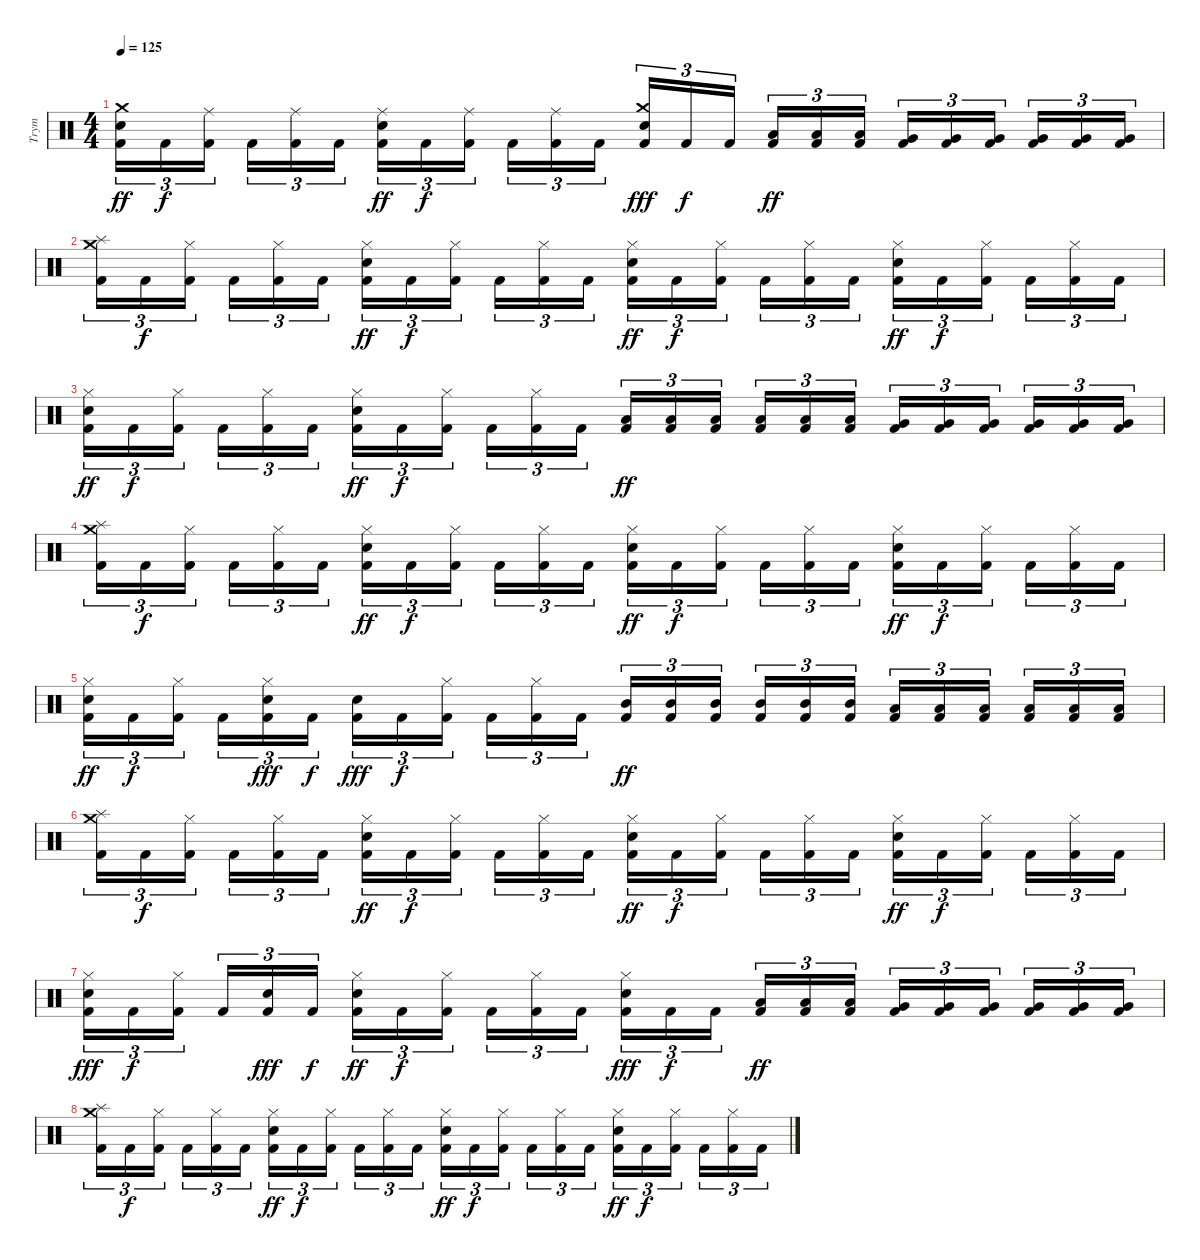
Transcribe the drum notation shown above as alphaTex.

\track ("Trym" "Trym") {instrument percussion}
\staff {score}
\articulation defaults
\ts (4 4)
\tempo 125
\clef neutral
\ks c
("Snare (hit) 2" "Crash medium (hit)" "Kick (hit) 2").16{tu (3 2) dy ff} "Kick (hit) 2".16{tu (3 2) dy f} ("Ride (middle)" "Kick (hit) 2").16{tu (3 2) beam splitsecondary} "Kick (hit) 2".16{tu (3 2)} ("Ride (middle)" "Kick (hit) 2").16{tu (3 2)} "Kick (hit) 2".16{tu (3 2)} ("Snare (hit) 2" "Ride (middle)" "Kick (hit) 2").16{tu (3 2) dy ff} "Kick (hit) 2".16{tu (3 2) dy f} ("Ride (middle)" "Kick (hit) 2").16{tu (3 2) beam splitsecondary} "Kick (hit) 2".16{tu (3 2)} ("Ride (middle)" "Kick (hit) 2").16{tu (3 2)} "Kick (hit) 2".16{tu (3 2)} ("Snare (hit) 2" "Crash medium (hit)" "Kick (hit) 2").16{tu (3 2) dy fff} "Kick (hit) 2".16{tu (3 2) dy f} "Kick (hit) 2".16{tu (3 2) beam splitsecondary} ("Low Tom (hit)" "Kick (hit) 2").16{tu (3 2) dy ff} ("Low Tom (hit)" "Kick (hit) 2").16{tu (3 2)} ("Low Tom (hit)" "Kick (hit) 2").16{tu (3 2)} ("Very Low Tom (hit)" "Kick (hit) 2").16{tu (3 2)} ("Very Low Tom (hit)" "Kick (hit) 2").16{tu (3 2)} ("Very Low Tom (hit)" "Kick (hit) 2").16{tu (3 2) beam splitsecondary} ("Very Low Tom (hit)" "Kick (hit) 2").16{tu (3 2)} ("Very Low Tom (hit)" "Kick (hit) 2").16{tu (3 2)} ("Very Low Tom (hit)" "Kick (hit) 2").16{tu (3 2)} |
("Crash medium (hit)" "Splash (hit)" "Kick (hit) 2").16{tu (3 2)} "Kick (hit) 2".16{tu (3 2) dy f} ("Hi-Hat (closed)" "Kick (hit) 2").16{tu (3 2) beam splitsecondary} "Kick (hit) 2".16{tu (3 2)} ("Hi-Hat (closed)" "Kick (hit) 2").16{tu (3 2)} "Kick (hit) 2".16{tu (3 2)} ("Snare (hit) 2" "Hi-Hat (closed)" "Kick (hit) 2").16{tu (3 2) dy ff} "Kick (hit) 2".16{tu (3 2) dy f} ("Hi-Hat (closed)" "Kick (hit) 2").16{tu (3 2) beam splitsecondary} "Kick (hit) 2".16{tu (3 2)} ("Hi-Hat (closed)" "Kick (hit) 2").16{tu (3 2)} "Kick (hit) 2".16{tu (3 2)} ("Snare (hit) 2" "Hi-Hat (closed)" "Kick (hit) 2").16{tu (3 2) dy ff} "Kick (hit) 2".16{tu (3 2) dy f} ("Hi-Hat (closed)" "Kick (hit) 2").16{tu (3 2) beam splitsecondary} "Kick (hit) 2".16{tu (3 2)} ("Hi-Hat (closed)" "Kick (hit) 2").16{tu (3 2)} "Kick (hit) 2".16{tu (3 2)} ("Snare (hit) 2" "Hi-Hat (closed)" "Kick (hit) 2").16{tu (3 2) dy ff} "Kick (hit) 2".16{tu (3 2) dy f} ("Hi-Hat (closed)" "Kick (hit) 2").16{tu (3 2) beam splitsecondary} "Kick (hit) 2".16{tu (3 2)} ("Hi-Hat (closed)" "Kick (hit) 2").16{tu (3 2)} "Kick (hit) 2".16{tu (3 2)} |
("Snare (hit) 2" "Hi-Hat (closed)" "Kick (hit) 2").16{tu (3 2) dy ff} "Kick (hit) 2".16{tu (3 2) dy f} ("Hi-Hat (closed)" "Kick (hit) 2").16{tu (3 2) beam splitsecondary} "Kick (hit) 2".16{tu (3 2)} ("Hi-Hat (closed)" "Kick (hit) 2").16{tu (3 2)} "Kick (hit) 2".16{tu (3 2)} ("Snare (hit) 2" "Hi-Hat (closed)" "Kick (hit) 2").16{tu (3 2) dy ff} "Kick (hit) 2".16{tu (3 2) dy f} ("Hi-Hat (closed)" "Kick (hit) 2").16{tu (3 2) beam splitsecondary} "Kick (hit) 2".16{tu (3 2)} ("Hi-Hat (closed)" "Kick (hit) 2").16{tu (3 2)} "Kick (hit) 2".16{tu (3 2)} ("Low Tom (hit)" "Kick (hit) 2").16{tu (3 2) dy ff} ("Low Tom (hit)" "Kick (hit) 2").16{tu (3 2)} ("Low Tom (hit)" "Kick (hit) 2").16{tu (3 2) beam splitsecondary} ("Low Tom (hit)" "Kick (hit) 2").16{tu (3 2)} ("Low Tom (hit)" "Kick (hit) 2").16{tu (3 2)} ("Low Tom (hit)" "Kick (hit) 2").16{tu (3 2)} ("Very Low Tom (hit)" "Kick (hit) 2").16{tu (3 2)} ("Very Low Tom (hit)" "Kick (hit) 2").16{tu (3 2)} ("Very Low Tom (hit)" "Kick (hit) 2").16{tu (3 2) beam splitsecondary} ("Very Low Tom (hit)" "Kick (hit) 2").16{tu (3 2)} ("Very Low Tom (hit)" "Kick (hit) 2").16{tu (3 2)} ("Very Low Tom (hit)" "Kick (hit) 2").16{tu (3 2)} |
("Crash medium (hit)" "Splash (hit)" "Kick (hit) 2").16{tu (3 2)} "Kick (hit) 2".16{tu (3 2) dy f} ("Hi-Hat (closed)" "Kick (hit) 2").16{tu (3 2) beam splitsecondary} "Kick (hit) 2".16{tu (3 2)} ("Hi-Hat (closed)" "Kick (hit) 2").16{tu (3 2)} "Kick (hit) 2".16{tu (3 2)} ("Snare (hit) 2" "Hi-Hat (closed)" "Kick (hit) 2").16{tu (3 2) dy ff} "Kick (hit) 2".16{tu (3 2) dy f} ("Hi-Hat (closed)" "Kick (hit) 2").16{tu (3 2) beam splitsecondary} "Kick (hit) 2".16{tu (3 2)} ("Hi-Hat (closed)" "Kick (hit) 2").16{tu (3 2)} "Kick (hit) 2".16{tu (3 2)} ("Snare (hit) 2" "Hi-Hat (closed)" "Kick (hit) 2").16{tu (3 2) dy ff} "Kick (hit) 2".16{tu (3 2) dy f} ("Hi-Hat (closed)" "Kick (hit) 2").16{tu (3 2) beam splitsecondary} "Kick (hit) 2".16{tu (3 2)} ("Hi-Hat (closed)" "Kick (hit) 2").16{tu (3 2)} "Kick (hit) 2".16{tu (3 2)} ("Snare (hit) 2" "Hi-Hat (closed)" "Kick (hit) 2").16{tu (3 2) dy ff} "Kick (hit) 2".16{tu (3 2) dy f} ("Hi-Hat (closed)" "Kick (hit) 2").16{tu (3 2) beam splitsecondary} "Kick (hit) 2".16{tu (3 2)} ("Hi-Hat (closed)" "Kick (hit) 2").16{tu (3 2)} "Kick (hit) 2".16{tu (3 2)} |
("Snare (hit) 2" "Hi-Hat (closed)" "Kick (hit) 2").16{tu (3 2) dy ff} "Kick (hit) 2".16{tu (3 2) dy f} ("Hi-Hat (closed)" "Kick (hit) 2").16{tu (3 2) beam splitsecondary} "Kick (hit) 2".16{tu (3 2)} ("Snare (hit) 2" "Hi-Hat (closed)" "Kick (hit) 2").16{tu (3 2) dy fff} "Kick (hit) 2".16{tu (3 2) dy f} ("Snare (hit) 2" "Kick (hit) 2").16{tu (3 2) dy fff} "Kick (hit) 2".16{tu (3 2) dy f} ("Hi-Hat (closed)" "Kick (hit) 2").16{tu (3 2) beam splitsecondary} "Kick (hit) 2".16{tu (3 2)} ("Hi-Hat (closed)" "Kick (hit) 2").16{tu (3 2)} "Kick (hit) 2".16{tu (3 2)} ("Mid Tom (hit)" "Kick (hit) 2").16{tu (3 2) dy ff} ("Mid Tom (hit)" "Kick (hit) 2").16{tu (3 2)} ("Mid Tom (hit)" "Kick (hit) 2").16{tu (3 2) beam splitsecondary} ("Mid Tom (hit)" "Kick (hit) 2").16{tu (3 2)} ("Mid Tom (hit)" "Kick (hit) 2").16{tu (3 2)} ("Mid Tom (hit)" "Kick (hit) 2").16{tu (3 2)} ("Low Tom (hit)" "Kick (hit) 2").16{tu (3 2)} ("Low Tom (hit)" "Kick (hit) 2").16{tu (3 2)} ("Low Tom (hit)" "Kick (hit) 2").16{tu (3 2) beam splitsecondary} ("Low Tom (hit)" "Kick (hit) 2").16{tu (3 2)} ("Low Tom (hit)" "Kick (hit) 2").16{tu (3 2)} ("Low Tom (hit)" "Kick (hit) 2").16{tu (3 2)} |
("Crash medium (hit)" "Splash (hit)" "Kick (hit) 2").16{tu (3 2)} "Kick (hit) 2".16{tu (3 2) dy f} ("Hi-Hat (closed)" "Kick (hit) 2").16{tu (3 2) beam splitsecondary} "Kick (hit) 2".16{tu (3 2)} ("Hi-Hat (closed)" "Kick (hit) 2").16{tu (3 2)} "Kick (hit) 2".16{tu (3 2)} ("Snare (hit) 2" "Hi-Hat (closed)" "Kick (hit) 2").16{tu (3 2) dy ff} "Kick (hit) 2".16{tu (3 2) dy f} ("Hi-Hat (closed)" "Kick (hit) 2").16{tu (3 2) beam splitsecondary} "Kick (hit) 2".16{tu (3 2)} ("Hi-Hat (closed)" "Kick (hit) 2").16{tu (3 2)} "Kick (hit) 2".16{tu (3 2)} ("Snare (hit) 2" "Hi-Hat (closed)" "Kick (hit) 2").16{tu (3 2) dy ff} "Kick (hit) 2".16{tu (3 2) dy f} ("Hi-Hat (closed)" "Kick (hit) 2").16{tu (3 2) beam splitsecondary} "Kick (hit) 2".16{tu (3 2)} ("Hi-Hat (closed)" "Kick (hit) 2").16{tu (3 2)} "Kick (hit) 2".16{tu (3 2)} ("Snare (hit) 2" "Hi-Hat (closed)" "Kick (hit) 2").16{tu (3 2) dy ff} "Kick (hit) 2".16{tu (3 2) dy f} ("Hi-Hat (closed)" "Kick (hit) 2").16{tu (3 2) beam splitsecondary} "Kick (hit) 2".16{tu (3 2)} ("Hi-Hat (closed)" "Kick (hit) 2").16{tu (3 2)} "Kick (hit) 2".16{tu (3 2)} |
("Snare (hit) 2" "Hi-Hat (closed)" "Kick (hit) 2").16{tu (3 2) dy fff} "Kick (hit) 2".16{tu (3 2) dy f} ("Hi-Hat (closed)" "Kick (hit) 2").16{tu (3 2) beam splitsecondary} "Kick (hit) 2".16{tu (3 2)} ("Snare (hit) 2" "Kick (hit) 2").16{tu (3 2) dy fff} "Kick (hit) 2".16{tu (3 2) dy f} ("Snare (hit) 2" "Hi-Hat (closed)" "Kick (hit) 2").16{tu (3 2) dy ff} "Kick (hit) 2".16{tu (3 2) dy f} ("Hi-Hat (closed)" "Kick (hit) 2").16{tu (3 2) beam splitsecondary} "Kick (hit) 2".16{tu (3 2)} ("Hi-Hat (closed)" "Kick (hit) 2").16{tu (3 2)} "Kick (hit) 2".16{tu (3 2)} ("Snare (hit) 2" "Hi-Hat (closed)" "Kick (hit) 2").16{tu (3 2) dy fff} "Kick (hit) 2".16{tu (3 2) dy f} "Kick (hit) 2".16{tu (3 2) beam splitsecondary} ("Low Tom (hit)" "Kick (hit) 2").16{tu (3 2) dy ff} ("Low Tom (hit)" "Kick (hit) 2").16{tu (3 2)} ("Low Tom (hit)" "Kick (hit) 2").16{tu (3 2)} ("Very Low Tom (hit)" "Kick (hit) 2").16{tu (3 2)} ("Very Low Tom (hit)" "Kick (hit) 2").16{tu (3 2)} ("Very Low Tom (hit)" "Kick (hit) 2").16{tu (3 2) beam splitsecondary} ("Very Low Tom (hit)" "Kick (hit) 2").16{tu (3 2)} ("Very Low Tom (hit)" "Kick (hit) 2").16{tu (3 2)} ("Very Low Tom (hit)" "Kick (hit) 2").16{tu (3 2)} |
("Crash medium (hit)" "Splash (hit)" "Kick (hit) 2").16{tu (3 2)} "Kick (hit) 2".16{tu (3 2) dy f} ("Hi-Hat (closed)" "Kick (hit) 2").16{tu (3 2) beam splitsecondary} "Kick (hit) 2".16{tu (3 2)} ("Hi-Hat (closed)" "Kick (hit) 2").16{tu (3 2)} "Kick (hit) 2".16{tu (3 2)} ("Snare (hit) 2" "Hi-Hat (closed)" "Kick (hit) 2").16{tu (3 2) dy ff} "Kick (hit) 2".16{tu (3 2) dy f} ("Hi-Hat (closed)" "Kick (hit) 2").16{tu (3 2) beam splitsecondary} "Kick (hit) 2".16{tu (3 2)} ("Hi-Hat (closed)" "Kick (hit) 2").16{tu (3 2)} "Kick (hit) 2".16{tu (3 2)} ("Snare (hit) 2" "Hi-Hat (closed)" "Kick (hit) 2").16{tu (3 2) dy ff} "Kick (hit) 2".16{tu (3 2) dy f} ("Hi-Hat (closed)" "Kick (hit) 2").16{tu (3 2) beam splitsecondary} "Kick (hit) 2".16{tu (3 2)} ("Hi-Hat (closed)" "Kick (hit) 2").16{tu (3 2)} "Kick (hit) 2".16{tu (3 2)} ("Snare (hit) 2" "Hi-Hat (closed)" "Kick (hit) 2").16{tu (3 2) dy ff} "Kick (hit) 2".16{tu (3 2) dy f} ("Hi-Hat (closed)" "Kick (hit) 2").16{tu (3 2) beam splitsecondary} "Kick (hit) 2".16{tu (3 2)} ("Hi-Hat (closed)" "Kick (hit) 2").16{tu (3 2)} "Kick (hit) 2".16{tu (3 2)}
